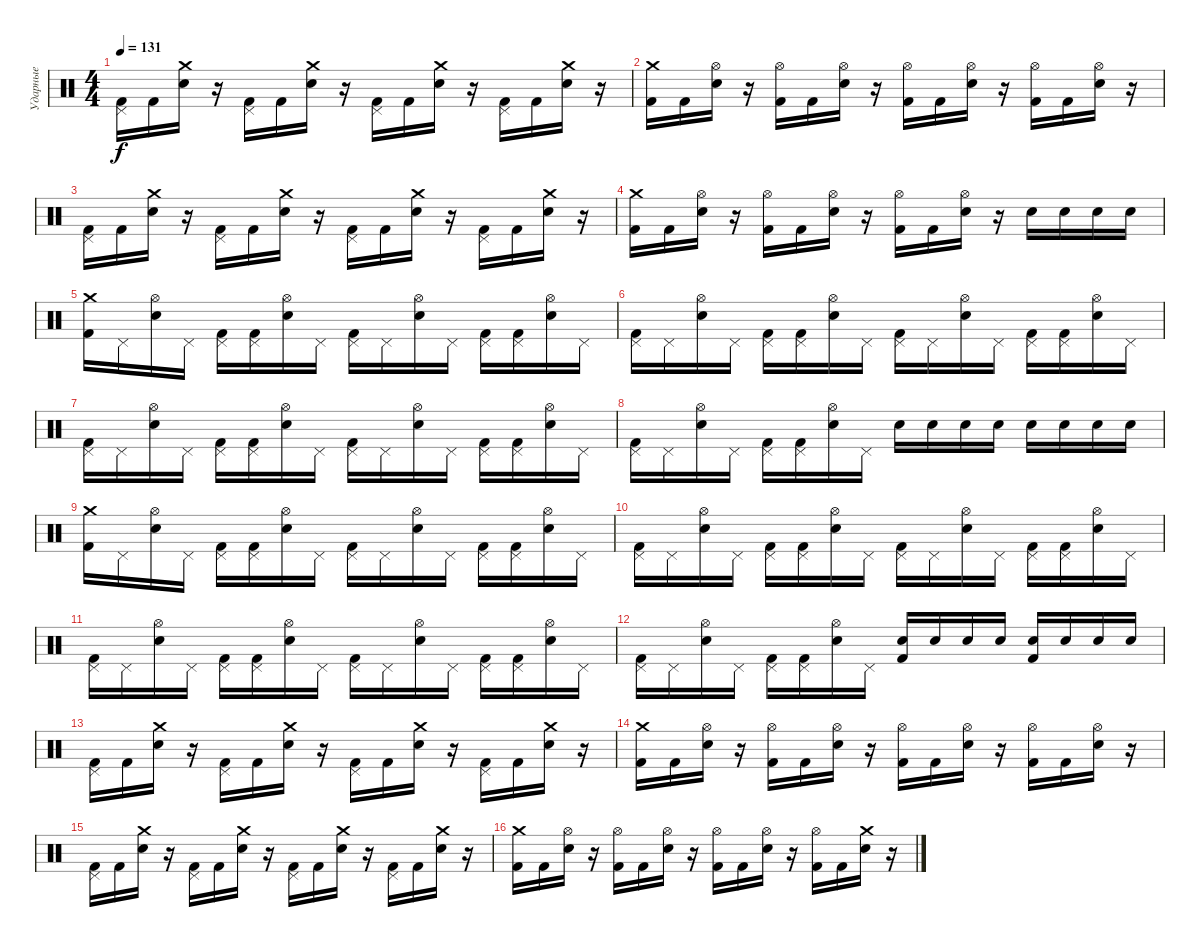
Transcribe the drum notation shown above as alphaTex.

\track ("Ударные" "Ударные") {instrument percussion}
\staff {score}
\articulation defaults
\ts (4 4)
\tempo 131
\clef neutral
\ks c
("Pedal Hi-Hat (hit)" "Kick (hit) 2").16{dy f} "Kick (hit) 2".16 ("Crash medium (hit)" "Electric Snare (hit)").16 r.16 ("Pedal Hi-Hat (hit)" "Kick (hit) 2").16 "Kick (hit) 2".16 ("Crash medium (hit)" "Electric Snare (hit)").16 r.16 ("Pedal Hi-Hat (hit)" "Kick (hit) 2").16 "Kick (hit) 2".16 ("Crash medium (hit)" "Electric Snare (hit)").16 r.16 ("Pedal Hi-Hat (hit)" "Kick (hit) 2").16 "Kick (hit) 2".16 ("Crash medium (hit)" "Electric Snare (hit)").16 r.16 |
("Crash medium (hit)" "Kick (hit) 2").16 "Kick (hit) 2".16 ("Hi-Hat (open)" "Electric Snare (hit)").16 r.16 ("Hi-Hat (open)" "Kick (hit) 2").16 "Kick (hit) 2".16 ("Hi-Hat (open)" "Electric Snare (hit)").16 r.16 ("Hi-Hat (open)" "Kick (hit) 2").16 "Kick (hit) 2".16 ("Hi-Hat (open)" "Electric Snare (hit)").16 r.16 ("Hi-Hat (open)" "Kick (hit) 2").16 "Kick (hit) 2".16 ("Hi-Hat (open)" "Electric Snare (hit)").16 r.16 |
("Pedal Hi-Hat (hit)" "Kick (hit) 2").16 "Kick (hit) 2".16 ("Crash medium (hit)" "Electric Snare (hit)").16 r.16 ("Pedal Hi-Hat (hit)" "Kick (hit) 2").16 "Kick (hit) 2".16 ("Crash medium (hit)" "Electric Snare (hit)").16 r.16 ("Pedal Hi-Hat (hit)" "Kick (hit) 2").16 "Kick (hit) 2".16 ("Crash medium (hit)" "Electric Snare (hit)").16 r.16 ("Pedal Hi-Hat (hit)" "Kick (hit) 2").16 "Kick (hit) 2".16 ("Crash medium (hit)" "Electric Snare (hit)").16 r.16 |
("Crash medium (hit)" "Kick (hit) 2").16 "Kick (hit) 2".16 ("Hi-Hat (open)" "Electric Snare (hit)").16 r.16 ("Hi-Hat (open)" "Kick (hit) 2").16 "Kick (hit) 2".16 ("Hi-Hat (open)" "Electric Snare (hit)").16 r.16 ("Hi-Hat (open)" "Kick (hit) 2").16 "Kick (hit) 2".16 ("Hi-Hat (open)" "Electric Snare (hit)").16 r.16 "Electric Snare (hit)".16 "Electric Snare (hit)".16 "Electric Snare (hit)".16 "Electric Snare (hit)".16 |
("Crash medium (hit)" "Kick (hit) 2").16 "Pedal Hi-Hat (hit)".16 ("Hi-Hat (open)" "Electric Snare (hit)").16 "Pedal Hi-Hat (hit)".16 ("Pedal Hi-Hat (hit)" "Kick (hit) 2").16 ("Pedal Hi-Hat (hit)" "Kick (hit) 2").16 ("Hi-Hat (open)" "Electric Snare (hit)").16 "Pedal Hi-Hat (hit)".16 ("Pedal Hi-Hat (hit)" "Kick (hit) 2").16 "Pedal Hi-Hat (hit)".16 ("Hi-Hat (open)" "Electric Snare (hit)").16 "Pedal Hi-Hat (hit)".16 ("Pedal Hi-Hat (hit)" "Kick (hit) 2").16 ("Pedal Hi-Hat (hit)" "Kick (hit) 2").16 ("Hi-Hat (open)" "Electric Snare (hit)").16 "Pedal Hi-Hat (hit)".16 |
("Pedal Hi-Hat (hit)" "Kick (hit) 2").16 "Pedal Hi-Hat (hit)".16 ("Hi-Hat (open)" "Electric Snare (hit)").16 "Pedal Hi-Hat (hit)".16 ("Pedal Hi-Hat (hit)" "Kick (hit) 2").16 ("Pedal Hi-Hat (hit)" "Kick (hit) 2").16 ("Hi-Hat (open)" "Electric Snare (hit)").16 "Pedal Hi-Hat (hit)".16 ("Pedal Hi-Hat (hit)" "Kick (hit) 2").16 "Pedal Hi-Hat (hit)".16 ("Hi-Hat (open)" "Electric Snare (hit)").16 "Pedal Hi-Hat (hit)".16 ("Pedal Hi-Hat (hit)" "Kick (hit) 2").16 ("Pedal Hi-Hat (hit)" "Kick (hit) 2").16 ("Hi-Hat (open)" "Electric Snare (hit)").16 "Pedal Hi-Hat (hit)".16 |
("Pedal Hi-Hat (hit)" "Kick (hit) 2").16 "Pedal Hi-Hat (hit)".16 ("Hi-Hat (open)" "Electric Snare (hit)").16 "Pedal Hi-Hat (hit)".16 ("Pedal Hi-Hat (hit)" "Kick (hit) 2").16 ("Pedal Hi-Hat (hit)" "Kick (hit) 2").16 ("Hi-Hat (open)" "Electric Snare (hit)").16 "Pedal Hi-Hat (hit)".16 ("Pedal Hi-Hat (hit)" "Kick (hit) 2").16 "Pedal Hi-Hat (hit)".16 ("Hi-Hat (open)" "Electric Snare (hit)").16 "Pedal Hi-Hat (hit)".16 ("Pedal Hi-Hat (hit)" "Kick (hit) 2").16 ("Pedal Hi-Hat (hit)" "Kick (hit) 2").16 ("Hi-Hat (open)" "Electric Snare (hit)").16 "Pedal Hi-Hat (hit)".16 |
("Pedal Hi-Hat (hit)" "Kick (hit) 2").16 "Pedal Hi-Hat (hit)".16 ("Hi-Hat (open)" "Electric Snare (hit)").16 "Pedal Hi-Hat (hit)".16 ("Pedal Hi-Hat (hit)" "Kick (hit) 2").16 ("Pedal Hi-Hat (hit)" "Kick (hit) 2").16 ("Hi-Hat (open)" "Electric Snare (hit)").16 "Pedal Hi-Hat (hit)".16 "Electric Snare (hit)".16 "Electric Snare (hit)".16 "Electric Snare (hit)".16 "Electric Snare (hit)".16 "Electric Snare (hit)".16 "Electric Snare (hit)".16 "Electric Snare (hit)".16 "Electric Snare (hit)".16 |
("Crash medium (hit)" "Kick (hit) 2").16 "Pedal Hi-Hat (hit)".16 ("Hi-Hat (open)" "Electric Snare (hit)").16 "Pedal Hi-Hat (hit)".16 ("Pedal Hi-Hat (hit)" "Kick (hit) 2").16 ("Pedal Hi-Hat (hit)" "Kick (hit) 2").16 ("Hi-Hat (open)" "Electric Snare (hit)").16 "Pedal Hi-Hat (hit)".16 ("Pedal Hi-Hat (hit)" "Kick (hit) 2").16 "Pedal Hi-Hat (hit)".16 ("Hi-Hat (open)" "Electric Snare (hit)").16 "Pedal Hi-Hat (hit)".16 ("Pedal Hi-Hat (hit)" "Kick (hit) 2").16 ("Pedal Hi-Hat (hit)" "Kick (hit) 2").16 ("Hi-Hat (open)" "Electric Snare (hit)").16 "Pedal Hi-Hat (hit)".16 |
("Pedal Hi-Hat (hit)" "Kick (hit) 2").16 "Pedal Hi-Hat (hit)".16 ("Hi-Hat (open)" "Electric Snare (hit)").16 "Pedal Hi-Hat (hit)".16 ("Pedal Hi-Hat (hit)" "Kick (hit) 2").16 ("Pedal Hi-Hat (hit)" "Kick (hit) 2").16 ("Hi-Hat (open)" "Electric Snare (hit)").16 "Pedal Hi-Hat (hit)".16 ("Pedal Hi-Hat (hit)" "Kick (hit) 2").16 "Pedal Hi-Hat (hit)".16 ("Hi-Hat (open)" "Electric Snare (hit)").16 "Pedal Hi-Hat (hit)".16 ("Pedal Hi-Hat (hit)" "Kick (hit) 2").16 ("Pedal Hi-Hat (hit)" "Kick (hit) 2").16 ("Hi-Hat (open)" "Electric Snare (hit)").16 "Pedal Hi-Hat (hit)".16 |
("Pedal Hi-Hat (hit)" "Kick (hit) 2").16 "Pedal Hi-Hat (hit)".16 ("Hi-Hat (open)" "Electric Snare (hit)").16 "Pedal Hi-Hat (hit)".16 ("Pedal Hi-Hat (hit)" "Kick (hit) 2").16 ("Pedal Hi-Hat (hit)" "Kick (hit) 2").16 ("Hi-Hat (open)" "Electric Snare (hit)").16 "Pedal Hi-Hat (hit)".16 ("Pedal Hi-Hat (hit)" "Kick (hit) 2").16 "Pedal Hi-Hat (hit)".16 ("Hi-Hat (open)" "Electric Snare (hit)").16 "Pedal Hi-Hat (hit)".16 ("Pedal Hi-Hat (hit)" "Kick (hit) 2").16 ("Pedal Hi-Hat (hit)" "Kick (hit) 2").16 ("Hi-Hat (open)" "Electric Snare (hit)").16 "Pedal Hi-Hat (hit)".16 |
("Pedal Hi-Hat (hit)" "Kick (hit) 2").16 "Pedal Hi-Hat (hit)".16 ("Hi-Hat (open)" "Electric Snare (hit)").16 "Pedal Hi-Hat (hit)".16 ("Pedal Hi-Hat (hit)" "Kick (hit) 2").16 ("Pedal Hi-Hat (hit)" "Kick (hit) 2").16 ("Hi-Hat (open)" "Electric Snare (hit)").16 "Pedal Hi-Hat (hit)".16 ("Electric Snare (hit)" "Kick (hit) 2").16 "Electric Snare (hit)".16 "Electric Snare (hit)".16 "Electric Snare (hit)".16 ("Electric Snare (hit)" "Kick (hit) 2").16 "Electric Snare (hit)".16 "Electric Snare (hit)".16 "Electric Snare (hit)".16 |
("Pedal Hi-Hat (hit)" "Kick (hit) 2").16 "Kick (hit) 2".16 ("Crash medium (hit)" "Electric Snare (hit)").16 r.16 ("Pedal Hi-Hat (hit)" "Kick (hit) 2").16 "Kick (hit) 2".16 ("Crash medium (hit)" "Electric Snare (hit)").16 r.16 ("Pedal Hi-Hat (hit)" "Kick (hit) 2").16 "Kick (hit) 2".16 ("Crash medium (hit)" "Electric Snare (hit)").16 r.16 ("Pedal Hi-Hat (hit)" "Kick (hit) 2").16 "Kick (hit) 2".16 ("Crash medium (hit)" "Electric Snare (hit)").16 r.16 |
("Crash medium (hit)" "Kick (hit) 2").16 "Kick (hit) 2".16 ("Hi-Hat (open)" "Electric Snare (hit)").16 r.16 ("Hi-Hat (open)" "Kick (hit) 2").16 "Kick (hit) 2".16 ("Hi-Hat (open)" "Electric Snare (hit)").16 r.16 ("Hi-Hat (open)" "Kick (hit) 2").16 "Kick (hit) 2".16 ("Hi-Hat (open)" "Electric Snare (hit)").16 r.16 ("Hi-Hat (open)" "Kick (hit) 2").16 "Kick (hit) 2".16 ("Hi-Hat (open)" "Electric Snare (hit)").16 r.16 |
("Pedal Hi-Hat (hit)" "Kick (hit) 2").16 "Kick (hit) 2".16 ("Crash medium (hit)" "Electric Snare (hit)").16 r.16 ("Pedal Hi-Hat (hit)" "Kick (hit) 2").16 "Kick (hit) 2".16 ("Crash medium (hit)" "Electric Snare (hit)").16 r.16 ("Pedal Hi-Hat (hit)" "Kick (hit) 2").16 "Kick (hit) 2".16 ("Crash medium (hit)" "Electric Snare (hit)").16 r.16 ("Pedal Hi-Hat (hit)" "Kick (hit) 2").16 "Kick (hit) 2".16 ("Crash medium (hit)" "Electric Snare (hit)").16 r.16 |
("Crash medium (hit)" "Kick (hit) 2").16 "Kick (hit) 2".16 ("Hi-Hat (open)" "Electric Snare (hit)").16 r.16 ("Hi-Hat (open)" "Kick (hit) 2").16 "Kick (hit) 2".16 ("Hi-Hat (open)" "Electric Snare (hit)").16 r.16 ("Hi-Hat (open)" "Kick (hit) 2").16 "Kick (hit) 2".16 ("Hi-Hat (open)" "Electric Snare (hit)").16 r.16 ("Hi-Hat (open)" "Kick (hit) 2").16 "Kick (hit) 2".16 ("Crash medium (hit)" "Electric Snare (hit)").16 r.16
